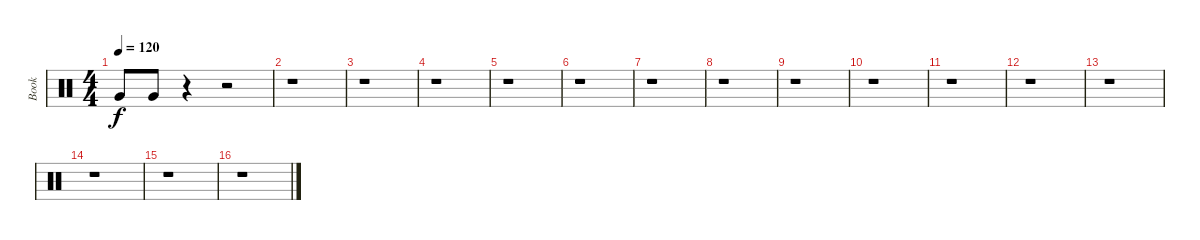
\track ("Book" "Book") {instrument percussion}
\staff {score}
\articulation defaults
\ts (4 4)
\tempo 120
\clef neutral
\ks c "Very Low Tom (hit)".8{dy f} "Very Low Tom (hit)".8
r.4 r.2 |
r.1 |
r.1 |
r.1 |
r.1 |
r.1 |
r.1 |
r.1 |
r.1 |
r.1 |
r.1 |
r.1 |
r.1 |
r.1 |
r.1 |
r.1
